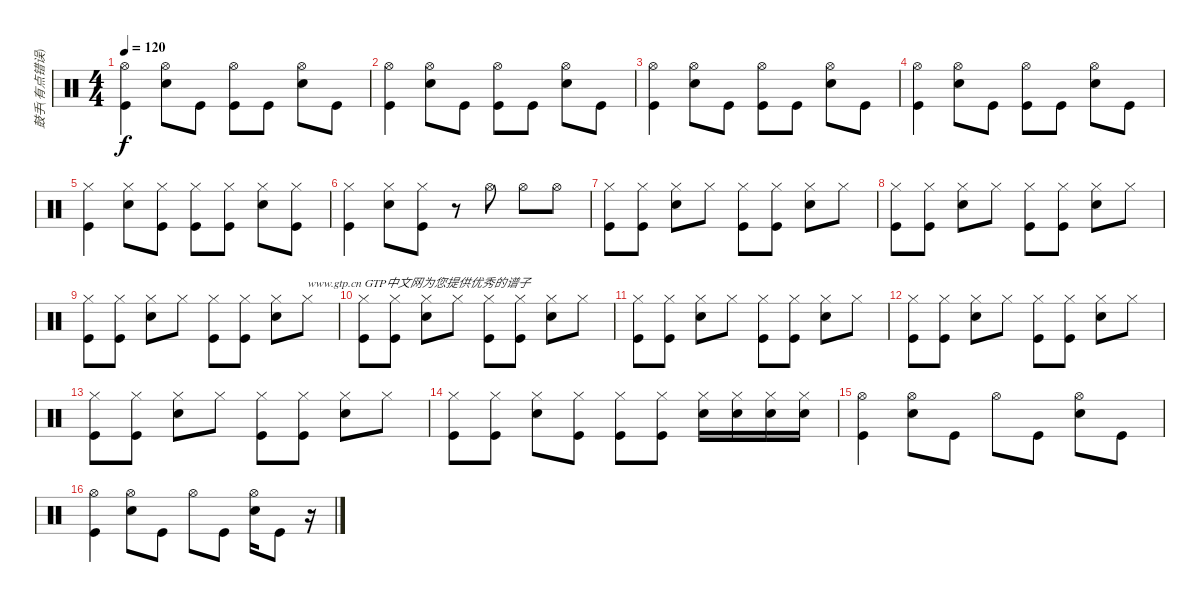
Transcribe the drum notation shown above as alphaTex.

\track ("鼓手(有点错误)" "鼓手(有点错误)") {instrument percussion}
\staff {score}
\articulation defaults
\ts (4 4)
\tempo 120
\clef neutral
\ks c
("Hi-Hat (open)" "Kick (hit)").4{dy f} ("Hi-Hat (open)" "Electric Snare (hit)").8 "Kick (hit)".8 ("Hi-Hat (open)" "Kick (hit)").8 "Kick (hit)".8 ("Hi-Hat (open)" "Electric Snare (hit)").8 "Kick (hit)".8 |
("Hi-Hat (open)" "Kick (hit)").4 ("Hi-Hat (open)" "Electric Snare (hit)").8 "Kick (hit)".8 ("Hi-Hat (open)" "Kick (hit)").8 "Kick (hit)".8 ("Hi-Hat (open)" "Electric Snare (hit)").8 "Kick (hit)".8 |
("Hi-Hat (open)" "Kick (hit)").4 ("Hi-Hat (open)" "Electric Snare (hit)").8 "Kick (hit)".8 ("Hi-Hat (open)" "Kick (hit)").8 "Kick (hit)".8 ("Hi-Hat (open)" "Electric Snare (hit)").8 "Kick (hit)".8 |
("Hi-Hat (open)" "Kick (hit)").4 ("Hi-Hat (open)" "Electric Snare (hit)").8 "Kick (hit)".8 ("Hi-Hat (open)" "Kick (hit)").8 "Kick (hit)".8 ("Hi-Hat (open)" "Electric Snare (hit)").8 "Kick (hit)".8 |
("Hi-Hat (closed)" "Kick (hit)").4 ("Hi-Hat (closed)" "Electric Snare (hit)").8 ("Hi-Hat (closed)" "Kick (hit)").8 ("Hi-Hat (closed)" "Kick (hit)").8 ("Hi-Hat (closed)" "Kick (hit)").8 ("Hi-Hat (closed)" "Electric Snare (hit)").8 ("Hi-Hat (closed)" "Kick (hit)").8 |
("Hi-Hat (closed)" "Kick (hit)").4 ("Hi-Hat (closed)" "Electric Snare (hit)").8 ("Hi-Hat (closed)" "Kick (hit)").8 r.8 "Hi-Hat (open)".8 "Hi-Hat (open)".8 "Hi-Hat (open)".8 |
("Hi-Hat (closed)" "Kick (hit)").8 ("Hi-Hat (closed)" "Kick (hit)").8 ("Hi-Hat (closed)" "Electric Snare (hit)").8 "Hi-Hat (closed)".8 ("Hi-Hat (closed)" "Kick (hit)").8 ("Hi-Hat (closed)" "Kick (hit)").8 ("Hi-Hat (closed)" "Electric Snare (hit)").8 "Hi-Hat (closed)".8 |
("Hi-Hat (closed)" "Kick (hit)").8 ("Hi-Hat (closed)" "Kick (hit)").8 ("Hi-Hat (closed)" "Electric Snare (hit)").8 "Hi-Hat (closed)".8 ("Hi-Hat (closed)" "Kick (hit)").8 ("Hi-Hat (closed)" "Kick (hit)").8 ("Hi-Hat (closed)" "Electric Snare (hit)").8 "Hi-Hat (closed)".8 |
("Hi-Hat (closed)" "Kick (hit)").8 ("Hi-Hat (closed)" "Kick (hit)").8 ("Hi-Hat (closed)" "Electric Snare (hit)").8 "Hi-Hat (closed)".8 ("Hi-Hat (closed)" "Kick (hit)").8 ("Hi-Hat (closed)" "Kick (hit)").8 ("Hi-Hat (closed)" "Electric Snare (hit)").8 "Hi-Hat (closed)".8{txt "www.gtp.cn GTP中文网为您提供优秀的谱子"} |
("Hi-Hat (closed)" "Kick (hit)").8 ("Hi-Hat (closed)" "Kick (hit)").8 ("Hi-Hat (closed)" "Electric Snare (hit)").8 "Hi-Hat (closed)".8 ("Hi-Hat (closed)" "Kick (hit)").8 ("Hi-Hat (closed)" "Kick (hit)").8 ("Hi-Hat (closed)" "Electric Snare (hit)").8 "Hi-Hat (closed)".8 |
("Hi-Hat (closed)" "Kick (hit)").8 ("Hi-Hat (closed)" "Kick (hit)").8 ("Hi-Hat (closed)" "Electric Snare (hit)").8 "Hi-Hat (closed)".8 ("Hi-Hat (closed)" "Kick (hit)").8 ("Hi-Hat (closed)" "Kick (hit)").8 ("Hi-Hat (closed)" "Electric Snare (hit)").8 "Hi-Hat (closed)".8 |
("Hi-Hat (closed)" "Kick (hit)").8 ("Hi-Hat (closed)" "Kick (hit)").8 ("Hi-Hat (closed)" "Electric Snare (hit)").8 "Hi-Hat (closed)".8 ("Hi-Hat (closed)" "Kick (hit)").8 ("Hi-Hat (closed)" "Kick (hit)").8 ("Hi-Hat (closed)" "Electric Snare (hit)").8 "Hi-Hat (closed)".8 |
("Hi-Hat (closed)" "Kick (hit)").8 ("Hi-Hat (closed)" "Kick (hit)").8 ("Hi-Hat (closed)" "Electric Snare (hit)").8 "Hi-Hat (closed)".8 ("Hi-Hat (closed)" "Kick (hit)").8 ("Hi-Hat (closed)" "Kick (hit)").8 ("Hi-Hat (closed)" "Electric Snare (hit)").8 "Hi-Hat (closed)".8 |
("Hi-Hat (closed)" "Kick (hit)").8 ("Hi-Hat (closed)" "Kick (hit)").8 ("Hi-Hat (closed)" "Electric Snare (hit)").8 ("Hi-Hat (closed)" "Kick (hit)").8 ("Hi-Hat (closed)" "Kick (hit)").8 ("Hi-Hat (closed)" "Kick (hit)").8 ("Hi-Hat (closed)" "Electric Snare (hit)").16 ("Hi-Hat (closed)" "Electric Snare (hit)").16 ("Hi-Hat (closed)" "Electric Snare (hit)").16 ("Hi-Hat (closed)" "Electric Snare (hit)").16 |
("Hi-Hat (open)" "Kick (hit)").4 ("Hi-Hat (open)" "Electric Snare (hit)").8 "Kick (hit)".8 "Hi-Hat (open)".8 "Kick (hit)".8 ("Hi-Hat (open)" "Electric Snare (hit)").8 "Kick (hit)".8 |
("Hi-Hat (open)" "Kick (hit)").4 ("Hi-Hat (open)" "Electric Snare (hit)").8 "Kick (hit)".8 "Hi-Hat (open)".8 "Kick (hit)".8 ("Hi-Hat (open)" "Electric Snare (hit)").16 "Kick (hit)".8 r.16
